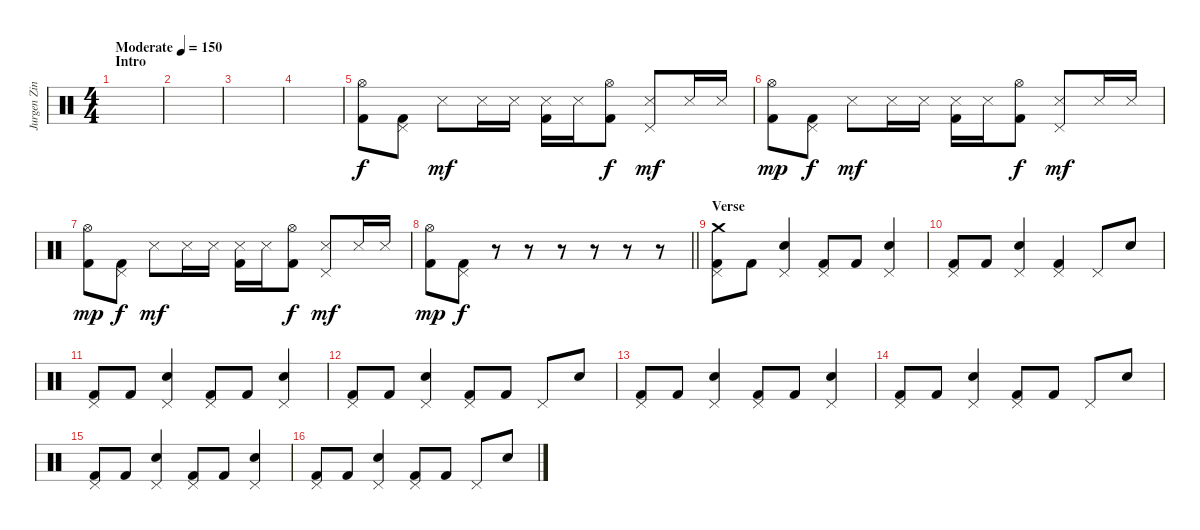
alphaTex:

\track ("Jurgen Zing" "Jurgen Zin") {instrument percussion}
\staff {score}
\articulation defaults
\ts (4 4)
\section ("" "Intro")
\tempo (150 "Moderate")
\clef neutral
\ks c
|
|
|
|
("Hi-Hat (open)" "Kick (hit) 2").8{volume 11} ("Pedal Hi-Hat (hit)" "Kick (hit) 2").8{dy f} "Metronome (hit)".8{dy mf} "Metronome (hit)".16 "Metronome (hit)".16 ("Metronome (hit)" "Kick (hit) 2").16 "Metronome (hit)".16 ("Hi-Hat (open)" "Kick (hit) 2").8{dy f} ("Pedal Hi-Hat (hit)" "Metronome (hit)").8{dy mf} "Metronome (hit)".16 "Metronome (hit)".16 |
("Hi-Hat (open)" "Kick (hit) 2").8{dy mp} ("Pedal Hi-Hat (hit)" "Kick (hit) 2").8{dy f} "Metronome (hit)".8{dy mf} "Metronome (hit)".16 "Metronome (hit)".16 ("Metronome (hit)" "Kick (hit) 2").16 "Metronome (hit)".16 ("Hi-Hat (open)" "Kick (hit) 2").8{dy f} ("Pedal Hi-Hat (hit)" "Metronome (hit)").8{dy mf} "Metronome (hit)".16 "Metronome (hit)".16 |
("Hi-Hat (open)" "Kick (hit) 2").8{dy mp} ("Pedal Hi-Hat (hit)" "Kick (hit) 2").8{dy f} "Metronome (hit)".8{dy mf} "Metronome (hit)".16 "Metronome (hit)".16 ("Metronome (hit)" "Kick (hit) 2").16 "Metronome (hit)".16 ("Hi-Hat (open)" "Kick (hit) 2").8{dy f} ("Pedal Hi-Hat (hit)" "Metronome (hit)").8{dy mf} "Metronome (hit)".16 "Metronome (hit)".16 |
\barLineRight lightlight
("Hi-Hat (open)" "Kick (hit) 2").8{dy mp} ("Pedal Hi-Hat (hit)" "Kick (hit) 2").8{dy f} r.8 r.8 r.8 r.8 r.8 r.8 |
\section ("" "Verse")
("Crash medium (hit)" "Pedal Hi-Hat (hit)" "Kick (hit) 2").8{volume 15} "Kick (hit) 2".8 ("Pedal Hi-Hat (hit)" "Electric Snare (hit)").4 ("Pedal Hi-Hat (hit)" "Kick (hit) 2").8 "Kick (hit) 2".8 ("Pedal Hi-Hat (hit)" "Electric Snare (hit)").4 |
("Pedal Hi-Hat (hit)" "Kick (hit) 2").8 "Kick (hit) 2".8 ("Pedal Hi-Hat (hit)" "Electric Snare (hit)").4 ("Pedal Hi-Hat (hit)" "Kick (hit) 2").4 "Pedal Hi-Hat (hit)".8 "Electric Snare (hit)".8 |
("Pedal Hi-Hat (hit)" "Kick (hit) 2").8 "Kick (hit) 2".8 ("Pedal Hi-Hat (hit)" "Electric Snare (hit)").4 ("Pedal Hi-Hat (hit)" "Kick (hit) 2").8 "Kick (hit) 2".8 ("Pedal Hi-Hat (hit)" "Electric Snare (hit)").4 |
("Pedal Hi-Hat (hit)" "Kick (hit) 2").8 "Kick (hit) 2".8 ("Pedal Hi-Hat (hit)" "Electric Snare (hit)").4 ("Pedal Hi-Hat (hit)" "Kick (hit) 2").8 "Kick (hit) 2".8 "Pedal Hi-Hat (hit)".8 "Electric Snare (hit)".8 |
("Pedal Hi-Hat (hit)" "Kick (hit) 2").8 "Kick (hit) 2".8 ("Pedal Hi-Hat (hit)" "Electric Snare (hit)").4 ("Pedal Hi-Hat (hit)" "Kick (hit) 2").8 "Kick (hit) 2".8 ("Pedal Hi-Hat (hit)" "Electric Snare (hit)").4 |
("Pedal Hi-Hat (hit)" "Kick (hit) 2").8 "Kick (hit) 2".8 ("Pedal Hi-Hat (hit)" "Electric Snare (hit)").4 ("Pedal Hi-Hat (hit)" "Kick (hit) 2").8 "Kick (hit) 2".8 "Pedal Hi-Hat (hit)".8 "Electric Snare (hit)".8 |
("Pedal Hi-Hat (hit)" "Kick (hit) 2").8 "Kick (hit) 2".8 ("Pedal Hi-Hat (hit)" "Electric Snare (hit)").4 ("Pedal Hi-Hat (hit)" "Kick (hit) 2").8 "Kick (hit) 2".8 ("Pedal Hi-Hat (hit)" "Electric Snare (hit)").4 |
("Pedal Hi-Hat (hit)" "Kick (hit) 2").8 "Kick (hit) 2".8 ("Pedal Hi-Hat (hit)" "Electric Snare (hit)").4 ("Pedal Hi-Hat (hit)" "Kick (hit) 2").8 "Kick (hit) 2".8 "Pedal Hi-Hat (hit)".8 "Electric Snare (hit)".8
